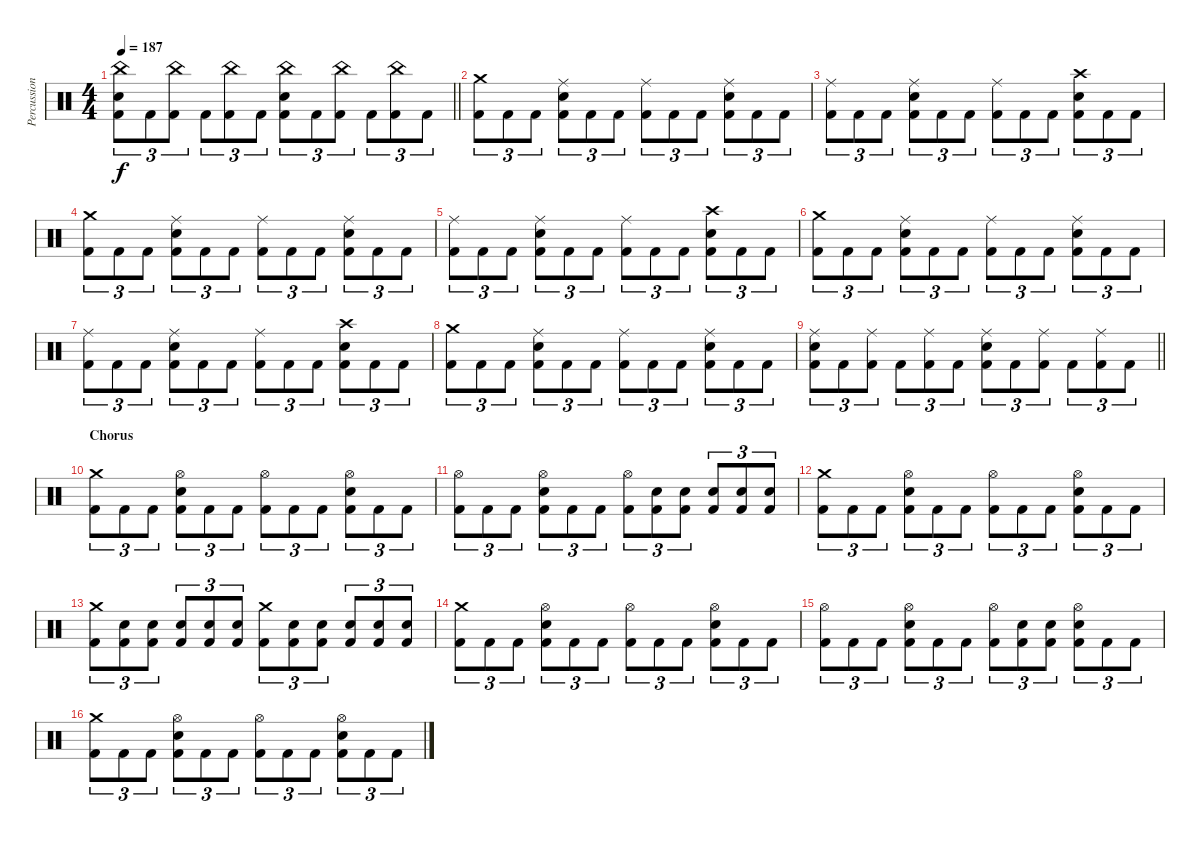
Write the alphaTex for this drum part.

\track ("Percussion" "Percussion") {instrument percussion}
\staff {score}
\articulation defaults
\ts (4 4)
\tempo 187
\clef neutral
\barLineRight lightlight
\ks c
("Kick (hit) 2" "Snare (hit) 2" "China (hit)").8{tu (3 2) dy f} "Kick (hit) 2".8{tu (3 2)} ("Kick (hit) 2" "China (hit)").8{tu (3 2)} "Kick (hit) 2".8{tu (3 2)} ("Kick (hit) 2" "China (hit)").8{tu (3 2)} "Kick (hit) 2".8{tu (3 2)} ("Kick (hit) 2" "Snare (hit) 2" "China (hit)").8{tu (3 2)} "Kick (hit) 2".8{tu (3 2)} ("Kick (hit) 2" "China (hit)").8{tu (3 2)} "Kick (hit) 2".8{tu (3 2)} ("Kick (hit) 2" "China (hit)").8{tu (3 2)} "Kick (hit) 2".8{tu (3 2)} |
\section ("" "")
("Kick (hit) 2" "Crash medium (hit)").8{tu (3 2)} "Kick (hit) 2".8{tu (3 2)} "Kick (hit) 2".8{tu (3 2)} ("Kick (hit) 2" "Snare (hit) 2" "Ride (middle)").8{tu (3 2)} "Kick (hit) 2".8{tu (3 2)} "Kick (hit) 2".8{tu (3 2)} ("Kick (hit) 2" "Ride (middle)").8{tu (3 2)} "Kick (hit) 2".8{tu (3 2)} "Kick (hit) 2".8{tu (3 2)} ("Kick (hit) 2" "Snare (hit) 2" "Ride (middle)").8{tu (3 2)} "Kick (hit) 2".8{tu (3 2)} "Kick (hit) 2".8{tu (3 2)} |
("Kick (hit) 2" "Ride (middle)").8{tu (3 2)} "Kick (hit) 2".8{tu (3 2)} "Kick (hit) 2".8{tu (3 2)} ("Kick (hit) 2" "Snare (hit) 2" "Ride (middle)").8{tu (3 2)} "Kick (hit) 2".8{tu (3 2)} "Kick (hit) 2".8{tu (3 2)} ("Kick (hit) 2" "Ride (middle)").8{tu (3 2)} "Kick (hit) 2".8{tu (3 2)} "Kick (hit) 2".8{tu (3 2)} ("Kick (hit) 2" "Snare (hit) 2" "Crash high (hit)").8{tu (3 2)} "Kick (hit) 2".8{tu (3 2)} "Kick (hit) 2".8{tu (3 2)} |
("Kick (hit) 2" "Crash medium (hit)").8{tu (3 2)} "Kick (hit) 2".8{tu (3 2)} "Kick (hit) 2".8{tu (3 2)} ("Kick (hit) 2" "Snare (hit) 2" "Ride (middle)").8{tu (3 2)} "Kick (hit) 2".8{tu (3 2)} "Kick (hit) 2".8{tu (3 2)} ("Kick (hit) 2" "Ride (middle)").8{tu (3 2)} "Kick (hit) 2".8{tu (3 2)} "Kick (hit) 2".8{tu (3 2)} ("Kick (hit) 2" "Snare (hit) 2" "Ride (middle)").8{tu (3 2)} "Kick (hit) 2".8{tu (3 2)} "Kick (hit) 2".8{tu (3 2)} |
("Kick (hit) 2" "Ride (middle)").8{tu (3 2)} "Kick (hit) 2".8{tu (3 2)} "Kick (hit) 2".8{tu (3 2)} ("Kick (hit) 2" "Snare (hit) 2" "Ride (middle)").8{tu (3 2)} "Kick (hit) 2".8{tu (3 2)} "Kick (hit) 2".8{tu (3 2)} ("Kick (hit) 2" "Ride (middle)").8{tu (3 2)} "Kick (hit) 2".8{tu (3 2)} "Kick (hit) 2".8{tu (3 2)} ("Kick (hit) 2" "Snare (hit) 2" "Crash high (hit)").8{tu (3 2)} "Kick (hit) 2".8{tu (3 2)} "Kick (hit) 2".8{tu (3 2)} |
("Kick (hit) 2" "Crash medium (hit)").8{tu (3 2)} "Kick (hit) 2".8{tu (3 2)} "Kick (hit) 2".8{tu (3 2)} ("Kick (hit) 2" "Snare (hit) 2" "Ride (middle)").8{tu (3 2)} "Kick (hit) 2".8{tu (3 2)} "Kick (hit) 2".8{tu (3 2)} ("Kick (hit) 2" "Ride (middle)").8{tu (3 2)} "Kick (hit) 2".8{tu (3 2)} "Kick (hit) 2".8{tu (3 2)} ("Kick (hit) 2" "Snare (hit) 2" "Ride (middle)").8{tu (3 2)} "Kick (hit) 2".8{tu (3 2)} "Kick (hit) 2".8{tu (3 2)} |
("Kick (hit) 2" "Ride (middle)").8{tu (3 2)} "Kick (hit) 2".8{tu (3 2)} "Kick (hit) 2".8{tu (3 2)} ("Kick (hit) 2" "Snare (hit) 2" "Ride (middle)").8{tu (3 2)} "Kick (hit) 2".8{tu (3 2)} "Kick (hit) 2".8{tu (3 2)} ("Kick (hit) 2" "Ride (middle)").8{tu (3 2)} "Kick (hit) 2".8{tu (3 2)} "Kick (hit) 2".8{tu (3 2)} ("Kick (hit) 2" "Snare (hit) 2" "Crash high (hit)").8{tu (3 2)} "Kick (hit) 2".8{tu (3 2)} "Kick (hit) 2".8{tu (3 2)} |
("Kick (hit) 2" "Crash medium (hit)").8{tu (3 2)} "Kick (hit) 2".8{tu (3 2)} "Kick (hit) 2".8{tu (3 2)} ("Kick (hit) 2" "Snare (hit) 2" "Ride (middle)").8{tu (3 2)} "Kick (hit) 2".8{tu (3 2)} "Kick (hit) 2".8{tu (3 2)} ("Kick (hit) 2" "Ride (middle)").8{tu (3 2)} "Kick (hit) 2".8{tu (3 2)} "Kick (hit) 2".8{tu (3 2)} ("Kick (hit) 2" "Snare (hit) 2" "Ride (middle)").8{tu (3 2)} "Kick (hit) 2".8{tu (3 2)} "Kick (hit) 2".8{tu (3 2)} |
\barLineRight lightlight
("Kick (hit) 2" "Snare (hit) 2" "Ride (middle)").8{tu (3 2)} "Kick (hit) 2".8{tu (3 2)} ("Kick (hit) 2" "Ride (middle)").8{tu (3 2)} "Kick (hit) 2".8{tu (3 2)} ("Kick (hit) 2" "Ride (middle)").8{tu (3 2)} "Kick (hit) 2".8{tu (3 2)} ("Kick (hit) 2" "Snare (hit) 2" "Ride (middle)").8{tu (3 2)} "Kick (hit) 2".8{tu (3 2)} ("Kick (hit) 2" "Ride (middle)").8{tu (3 2)} "Kick (hit) 2".8{tu (3 2)} ("Kick (hit) 2" "Ride (middle)").8{tu (3 2)} "Kick (hit) 2".8{tu (3 2)} |
\section ("" "Chorus")
("Kick (hit) 2" "Crash medium (hit)").8{tu (3 2)} "Kick (hit) 2".8{tu (3 2)} "Kick (hit) 2".8{tu (3 2)} ("Kick (hit) 2" "Snare (hit) 2" "Hi-Hat (open)").8{tu (3 2)} "Kick (hit) 2".8{tu (3 2)} "Kick (hit) 2".8{tu (3 2)} ("Kick (hit) 2" "Hi-Hat (open)").8{tu (3 2)} "Kick (hit) 2".8{tu (3 2)} "Kick (hit) 2".8{tu (3 2)} ("Kick (hit) 2" "Snare (hit) 2" "Hi-Hat (open)").8{tu (3 2)} "Kick (hit) 2".8{tu (3 2)} "Kick (hit) 2".8{tu (3 2)} |
("Kick (hit) 2" "Hi-Hat (open)").8{tu (3 2)} "Kick (hit) 2".8{tu (3 2)} "Kick (hit) 2".8{tu (3 2)} ("Kick (hit) 2" "Snare (hit) 2" "Hi-Hat (open)").8{tu (3 2)} "Kick (hit) 2".8{tu (3 2)} "Kick (hit) 2".8{tu (3 2)} ("Kick (hit) 2" "Hi-Hat (open)").8{tu (3 2)} ("Kick (hit) 2" "Snare (hit) 2").8{tu (3 2)} ("Kick (hit) 2" "Snare (hit) 2").8{tu (3 2)} ("Kick (hit) 2" "Snare (hit) 2").8{tu (3 2)} ("Kick (hit) 2" "Snare (hit) 2").8{tu (3 2)} ("Kick (hit) 2" "Snare (hit) 2").8{tu (3 2)} |
("Kick (hit) 2" "Crash medium (hit)").8{tu (3 2)} "Kick (hit) 2".8{tu (3 2)} "Kick (hit) 2".8{tu (3 2)} ("Kick (hit) 2" "Snare (hit) 2" "Hi-Hat (open)").8{tu (3 2)} "Kick (hit) 2".8{tu (3 2)} "Kick (hit) 2".8{tu (3 2)} ("Kick (hit) 2" "Hi-Hat (open)").8{tu (3 2)} "Kick (hit) 2".8{tu (3 2)} "Kick (hit) 2".8{tu (3 2)} ("Kick (hit) 2" "Snare (hit) 2" "Hi-Hat (open)").8{tu (3 2)} "Kick (hit) 2".8{tu (3 2)} "Kick (hit) 2".8{tu (3 2)} |
("Kick (hit) 2" "Crash medium (hit)").8{tu (3 2)} ("Kick (hit) 2" "Snare (hit) 2").8{tu (3 2)} ("Kick (hit) 2" "Snare (hit) 2").8{tu (3 2)} ("Kick (hit) 2" "Snare (hit) 2").8{tu (3 2)} ("Kick (hit) 2" "Snare (hit) 2").8{tu (3 2)} ("Kick (hit) 2" "Snare (hit) 2").8{tu (3 2)} ("Kick (hit) 2" "Crash medium (hit)").8{tu (3 2)} ("Kick (hit) 2" "Snare (hit) 2").8{tu (3 2)} ("Kick (hit) 2" "Snare (hit) 2").8{tu (3 2)} ("Kick (hit) 2" "Snare (hit) 2").8{tu (3 2)} ("Kick (hit) 2" "Snare (hit) 2").8{tu (3 2)} ("Kick (hit) 2" "Snare (hit) 2").8{tu (3 2)} |
("Kick (hit) 2" "Crash medium (hit)").8{tu (3 2)} "Kick (hit) 2".8{tu (3 2)} "Kick (hit) 2".8{tu (3 2)} ("Kick (hit) 2" "Snare (hit) 2" "Hi-Hat (open)").8{tu (3 2)} "Kick (hit) 2".8{tu (3 2)} "Kick (hit) 2".8{tu (3 2)} ("Kick (hit) 2" "Hi-Hat (open)").8{tu (3 2)} "Kick (hit) 2".8{tu (3 2)} "Kick (hit) 2".8{tu (3 2)} ("Kick (hit) 2" "Snare (hit) 2" "Hi-Hat (open)").8{tu (3 2)} "Kick (hit) 2".8{tu (3 2)} "Kick (hit) 2".8{tu (3 2)} |
("Kick (hit) 2" "Hi-Hat (open)").8{tu (3 2)} "Kick (hit) 2".8{tu (3 2)} "Kick (hit) 2".8{tu (3 2)} ("Kick (hit) 2" "Snare (hit) 2" "Hi-Hat (open)").8{tu (3 2)} "Kick (hit) 2".8{tu (3 2)} "Kick (hit) 2".8{tu (3 2)} ("Kick (hit) 2" "Hi-Hat (open)").8{tu (3 2)} ("Kick (hit) 2" "Snare (hit) 2").8{tu (3 2)} ("Kick (hit) 2" "Snare (hit) 2").8{tu (3 2)} ("Kick (hit) 2" "Snare (hit) 2" "Hi-Hat (open)").8{tu (3 2)} "Kick (hit) 2".8{tu (3 2)} "Kick (hit) 2".8{tu (3 2)} |
("Kick (hit) 2" "Crash medium (hit)").8{tu (3 2)} "Kick (hit) 2".8{tu (3 2)} "Kick (hit) 2".8{tu (3 2)} ("Kick (hit) 2" "Snare (hit) 2" "Hi-Hat (open)").8{tu (3 2)} "Kick (hit) 2".8{tu (3 2)} "Kick (hit) 2".8{tu (3 2)} ("Kick (hit) 2" "Hi-Hat (open)").8{tu (3 2)} "Kick (hit) 2".8{tu (3 2)} "Kick (hit) 2".8{tu (3 2)} ("Kick (hit) 2" "Snare (hit) 2" "Hi-Hat (open)").8{tu (3 2)} "Kick (hit) 2".8{tu (3 2)} "Kick (hit) 2".8{tu (3 2)}
